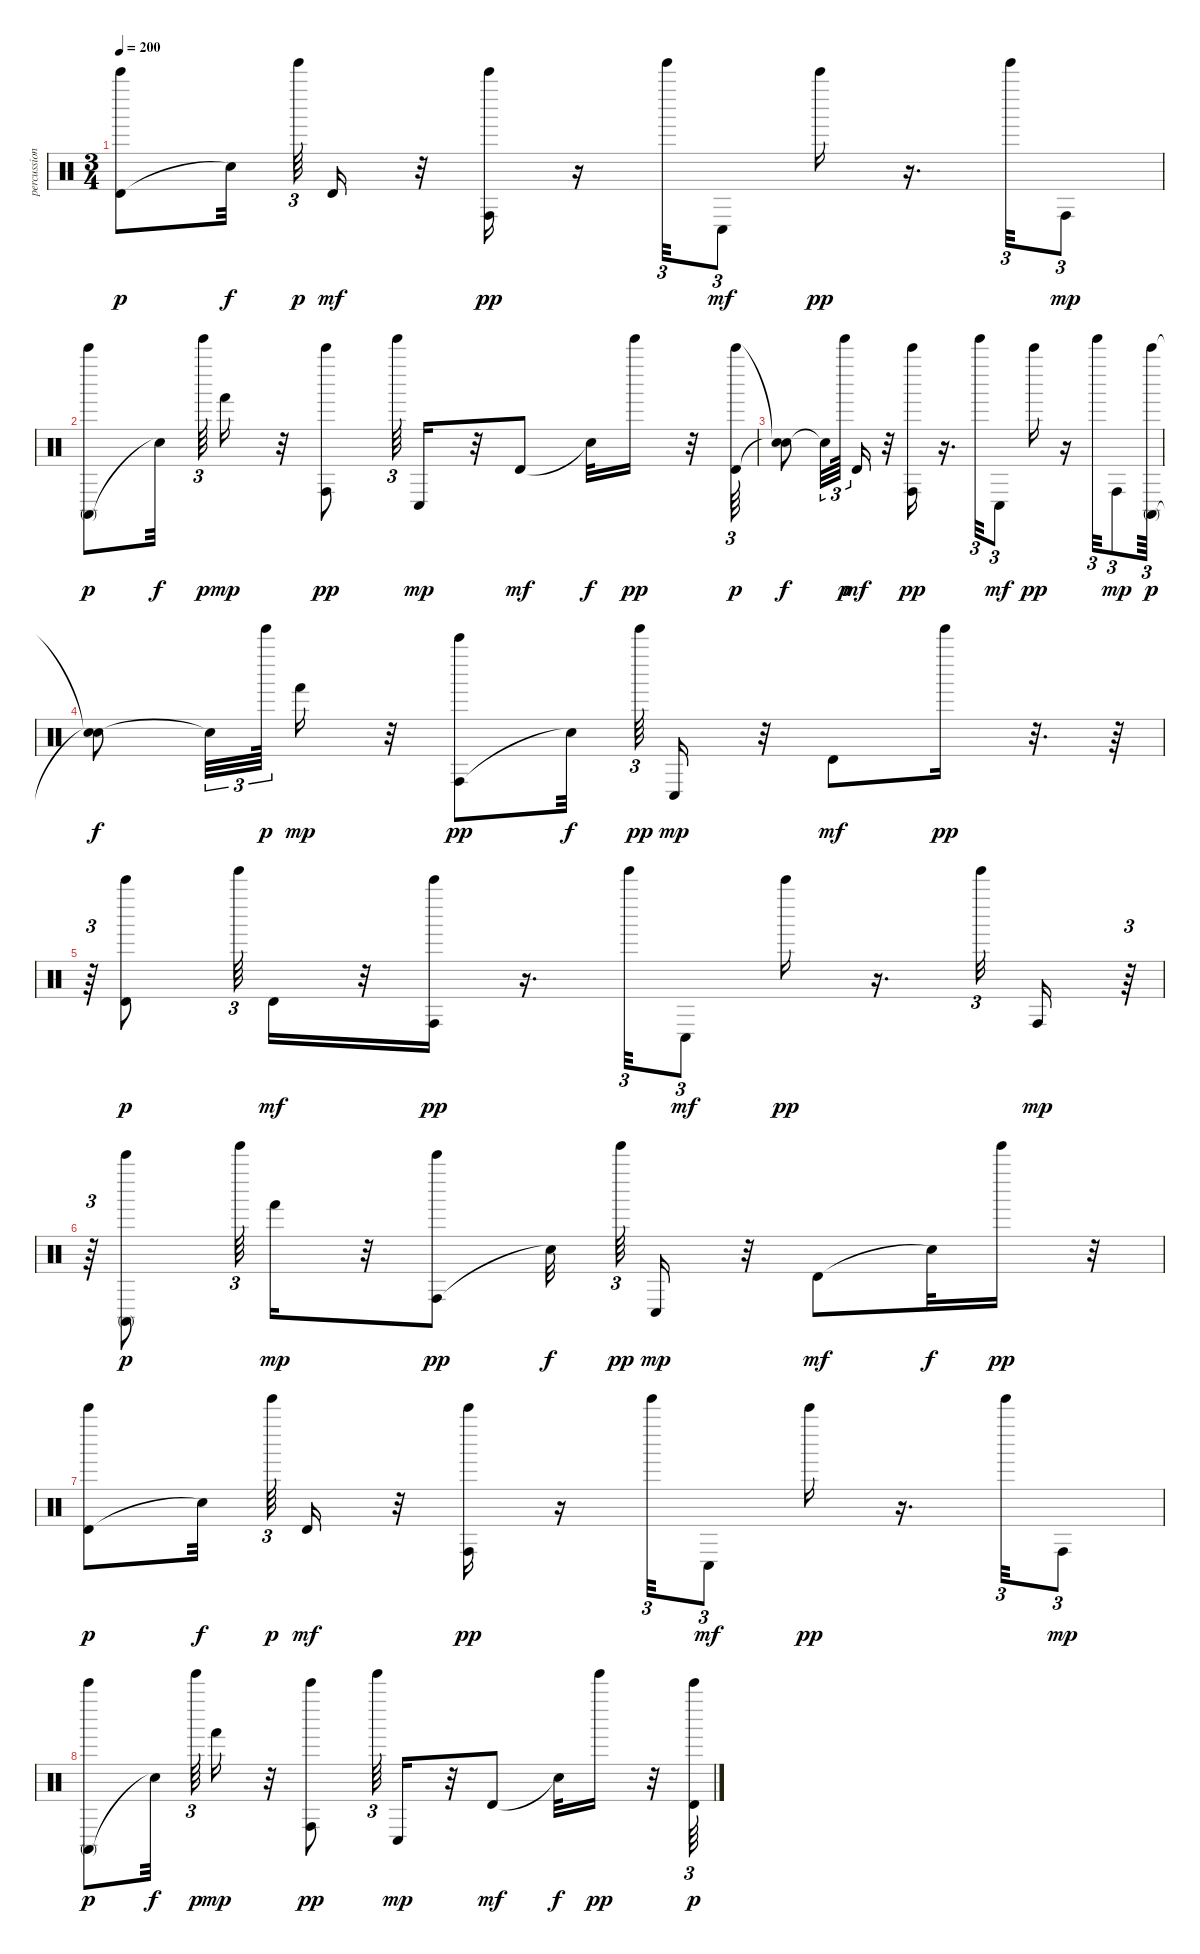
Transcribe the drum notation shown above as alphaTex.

\track ("percussion" "percussion") {instrument percussion}
\staff {score}
\articulation defaults
\ts (3 4)
\tempo 200
\clef neutral
\ks c
("Timbale high (hit)" "Bell Tree (hit)").8{dy p} "Snare (hit)"{t}.32{dy f} "Tinkle Bell (hit)".64{tu (3 2) dy p} "Timbale high (hit)".16{dy mf} r.32 ("Conga high (hit)" "Bell Tree (hit)").16{dy pp} r.16 "Tinkle Bell (hit)".32{tu (3 2)} "Conga low (hit)".8{tu (3 2) dy mf} "Bell Tree (hit)".16{dy pp} r.16{d} "Tinkle Bell (hit)".32{tu (3 2)} "Conga high (hit)".8{tu (3 2) dy mp} |
("Conga high (mute)" "Bell Tree (hit)").8{dy p} "Snare (hit)"{t}.32{dy f} "Tinkle Bell (hit)".64{tu (3 2) dy p} "Hand (hit)".16{dy mp} r.32 ("Conga high (hit)" "Bell Tree (hit)").8{dy pp} "Tinkle Bell (hit)".64{tu (3 2)} "Conga low (hit)".16{dy mp} r.32 "Timbale high (hit)".8{dy mf} "Snare (hit)"{t}.32{dy f} "Tinkle Bell (hit)".16{dy pp} r.32 ("Timbale high (hit)" "Bell Tree (hit)").64{tu (3 2) dy p} |
("Snare (hit)"{t} "Snare (hit)"{t}).8{dy f} "Snare (hit)"{t}.32{tu (3 2)} "Tinkle Bell (hit)".64{tu (3 2) dy p} "Timbale high (hit)".16{dy mf} r.32 ("Conga high (hit)" "Bell Tree (hit)").16{dy pp} r.16{d} "Tinkle Bell (hit)".32{tu (3 2)} "Conga low (hit)".8{tu (3 2) dy mf} "Bell Tree (hit)".16{dy pp} r.16 "Tinkle Bell (hit)".32{tu (3 2)} "Conga high (hit)".8{tu (3 2) dy mp} ("Conga high (mute)" "Bell Tree (hit)").64{tu (3 2) dy p} |
("Snare (hit)"{t} "Snare (hit)"{t}).8{dy f} "Snare (hit)"{t}.32{tu (3 2)} "Tinkle Bell (hit)".64{tu (3 2) dy p} "Hand (hit)".16{dy mp} r.32 ("Conga high (hit)" "Bell Tree (hit)").8{dy pp} "Snare (hit)"{t}.32{dy f} "Tinkle Bell (hit)".64{tu (3 2) dy pp} "Conga low (hit)".16{dy mp} r.32 "Timbale high (hit)".8{dy mf} "Tinkle Bell (hit)".16{dy pp} r.32{d} r.64 |
r.64{tu (3 2)} ("Timbale high (hit)" "Bell Tree (hit)").8{dy p} "Tinkle Bell (hit)".64{tu (3 2)} "Timbale high (hit)".16{dy mf} r.32 ("Conga high (hit)" "Bell Tree (hit)").16{dy pp} r.16{d} "Tinkle Bell (hit)".32{tu (3 2)} "Conga low (hit)".8{tu (3 2) dy mf} "Bell Tree (hit)".16{dy pp} r.16{d} "Tinkle Bell (hit)".32{tu (3 2)} "Conga high (hit)".16{dy mp} r.64{tu (3 2)} |
r.64{tu (3 2)} ("Conga high (mute)" "Bell Tree (hit)").8{dy p} "Tinkle Bell (hit)".64{tu (3 2)} "Hand (hit)".16{dy mp} r.32 ("Conga high (hit)" "Bell Tree (hit)").8{dy pp} "Snare (hit)"{t}.32{dy f} "Tinkle Bell (hit)".64{tu (3 2) dy pp} "Conga low (hit)".16{dy mp} r.32 "Timbale high (hit)".8{dy mf} "Snare (hit)"{t}.32{dy f} "Tinkle Bell (hit)".16{dy pp} r.32 |
("Timbale high (hit)" "Bell Tree (hit)").8{dy p} "Snare (hit)"{t}.32{dy f} "Tinkle Bell (hit)".64{tu (3 2) dy p} "Timbale high (hit)".16{dy mf} r.32 ("Conga high (hit)" "Bell Tree (hit)").16{dy pp} r.16 "Tinkle Bell (hit)".32{tu (3 2)} "Conga low (hit)".8{tu (3 2) dy mf} "Bell Tree (hit)".16{dy pp} r.16{d} "Tinkle Bell (hit)".32{tu (3 2)} "Conga high (hit)".8{tu (3 2) dy mp} |
("Conga high (mute)" "Bell Tree (hit)").8{dy p} "Snare (hit)"{t}.32{dy f} "Tinkle Bell (hit)".64{tu (3 2) dy p} "Hand (hit)".16{dy mp} r.32 ("Conga high (hit)" "Bell Tree (hit)").8{dy pp} "Tinkle Bell (hit)".64{tu (3 2)} "Conga low (hit)".16{dy mp} r.32 "Timbale high (hit)".8{dy mf} "Snare (hit)"{t}.32{dy f} "Tinkle Bell (hit)".16{dy pp} r.32 ("Timbale high (hit)" "Bell Tree (hit)").64{tu (3 2) dy p}
